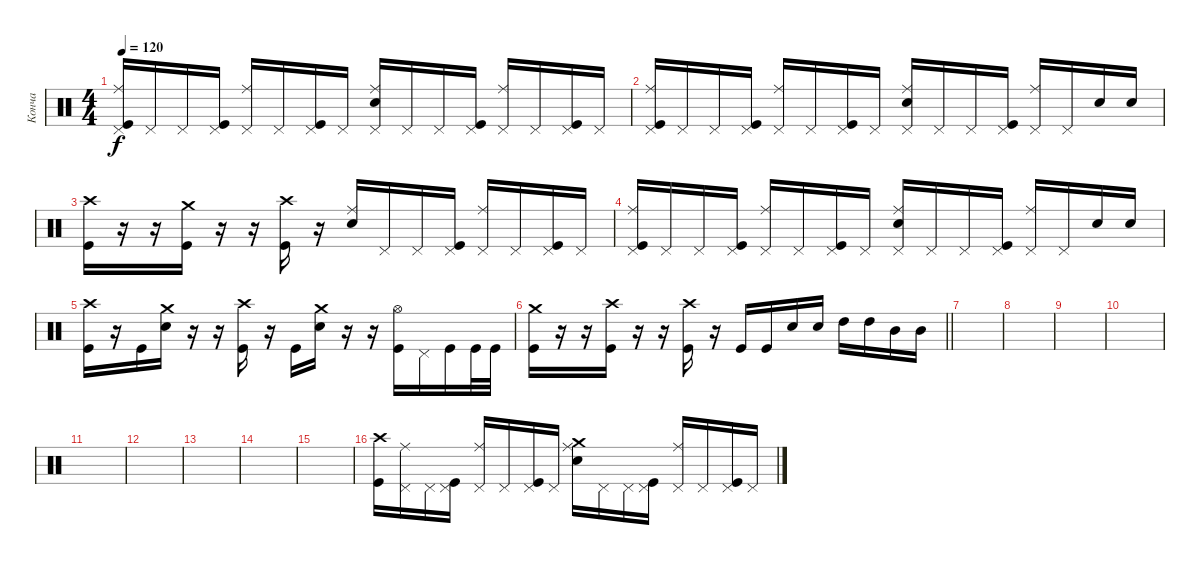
\track ("Конча" "Конча") {instrument percussion}
\staff {score}
\articulation defaults
\ts (4 4)
\tempo 120
\clef neutral
\ks c
("Ride (middle)" "Pedal Hi-Hat (hit)" "Kick (hit)").16{dy f} "Pedal Hi-Hat (hit)".16 "Pedal Hi-Hat (hit)".16 ("Pedal Hi-Hat (hit)" "Kick (hit)").16 ("Ride (middle)" "Pedal Hi-Hat (hit)").16 "Pedal Hi-Hat (hit)".16 ("Pedal Hi-Hat (hit)" "Kick (hit)").16 "Pedal Hi-Hat (hit)".16 ("Ride (middle)" "Pedal Hi-Hat (hit)" "Electric Snare (hit)").16 "Pedal Hi-Hat (hit)".16 "Pedal Hi-Hat (hit)".16 ("Pedal Hi-Hat (hit)" "Kick (hit)").16 ("Ride (middle)" "Pedal Hi-Hat (hit)").16 "Pedal Hi-Hat (hit)".16 ("Pedal Hi-Hat (hit)" "Kick (hit)").16 "Pedal Hi-Hat (hit)".16 |
("Ride (middle)" "Pedal Hi-Hat (hit)" "Kick (hit)").16 "Pedal Hi-Hat (hit)".16 "Pedal Hi-Hat (hit)".16 ("Pedal Hi-Hat (hit)" "Kick (hit)").16 ("Ride (middle)" "Pedal Hi-Hat (hit)").16 "Pedal Hi-Hat (hit)".16 ("Pedal Hi-Hat (hit)" "Kick (hit)").16 "Pedal Hi-Hat (hit)".16 ("Ride (middle)" "Pedal Hi-Hat (hit)" "Electric Snare (hit)").16 "Pedal Hi-Hat (hit)".16 "Pedal Hi-Hat (hit)".16 ("Pedal Hi-Hat (hit)" "Kick (hit)").16 ("Ride (middle)" "Pedal Hi-Hat (hit)").16 "Pedal Hi-Hat (hit)".16 "Electric Snare (hit)".16 "Electric Snare (hit)".16 |
("Crash high (hit)" "Kick (hit)").16 r.16 r.16 ("Crash medium (hit)" "Kick (hit)").16 r.16 r.16 ("Crash high (hit)" "Kick (hit)").16 r.16 ("Ride (middle)" "Electric Snare (hit)").16 "Pedal Hi-Hat (hit)".16 "Pedal Hi-Hat (hit)".16 ("Pedal Hi-Hat (hit)" "Kick (hit)").16 ("Pedal Hi-Hat (hit)" "Ride (middle)").16 "Pedal Hi-Hat (hit)".16 ("Pedal Hi-Hat (hit)" "Kick (hit)").16 "Pedal Hi-Hat (hit)".16 |
("Ride (middle)" "Pedal Hi-Hat (hit)" "Kick (hit)").16 "Pedal Hi-Hat (hit)".16 "Pedal Hi-Hat (hit)".16 ("Pedal Hi-Hat (hit)" "Kick (hit)").16 ("Ride (middle)" "Pedal Hi-Hat (hit)").16 "Pedal Hi-Hat (hit)".16 ("Pedal Hi-Hat (hit)" "Kick (hit)").16 "Pedal Hi-Hat (hit)".16 ("Ride (middle)" "Pedal Hi-Hat (hit)" "Electric Snare (hit)").16 "Pedal Hi-Hat (hit)".16 "Pedal Hi-Hat (hit)".16 ("Pedal Hi-Hat (hit)" "Kick (hit)").16 ("Ride (middle)" "Pedal Hi-Hat (hit)").16 "Pedal Hi-Hat (hit)".16 "Electric Snare (hit)".16 "Electric Snare (hit)".16 |
("Crash high (hit)" "Kick (hit)").16 r.16 "Kick (hit)".16 ("Crash medium (hit)" "Electric Snare (hit)").16 r.16 r.16 ("Crash high (hit)" "Kick (hit)").16 r.16 "Kick (hit)".16 ("Crash medium (hit)" "Electric Snare (hit)").16 r.16 r.16 ("Hi-Hat (open)" "Kick (hit)").16 "Pedal Hi-Hat (hit)".16 "Kick (hit)".16 "Kick (hit)".32 "Kick (hit)".32 |
\barLineRight lightlight
("Crash medium (hit)" "Kick (hit)").16 r.16 r.16 ("Crash high (hit)" "Kick (hit)").16 r.16 r.16 ("Crash high (hit)" "Kick (hit)").16 r.16 "Kick (hit)".16 "Kick (hit)".16 "Electric Snare (hit)".16 "Electric Snare (hit)".16 "High Tom (hit)".16 "High Tom (hit)".16 "Mid Tom (hit)".16 "Mid Tom (hit)".16 |
|
|
|
|
|
|
|
|
|
("Crash high (hit)" "Kick (hit)").16 ("Ride (middle)" "Pedal Hi-Hat (hit)").16 "Pedal Hi-Hat (hit)".16 ("Pedal Hi-Hat (hit)" "Kick (hit)").16 ("Ride (middle)" "Pedal Hi-Hat (hit)").16 "Pedal Hi-Hat (hit)".16 ("Pedal Hi-Hat (hit)" "Kick (hit)").16 "Pedal Hi-Hat (hit)".16 ("Ride (middle)" "Crash medium (hit)" "Electric Snare (hit)").16 "Pedal Hi-Hat (hit)".16 "Pedal Hi-Hat (hit)".16 ("Pedal Hi-Hat (hit)" "Kick (hit)").16 ("Ride (middle)" "Pedal Hi-Hat (hit)").16 "Pedal Hi-Hat (hit)".16 ("Pedal Hi-Hat (hit)" "Kick (hit)").16 "Pedal Hi-Hat (hit)".16
